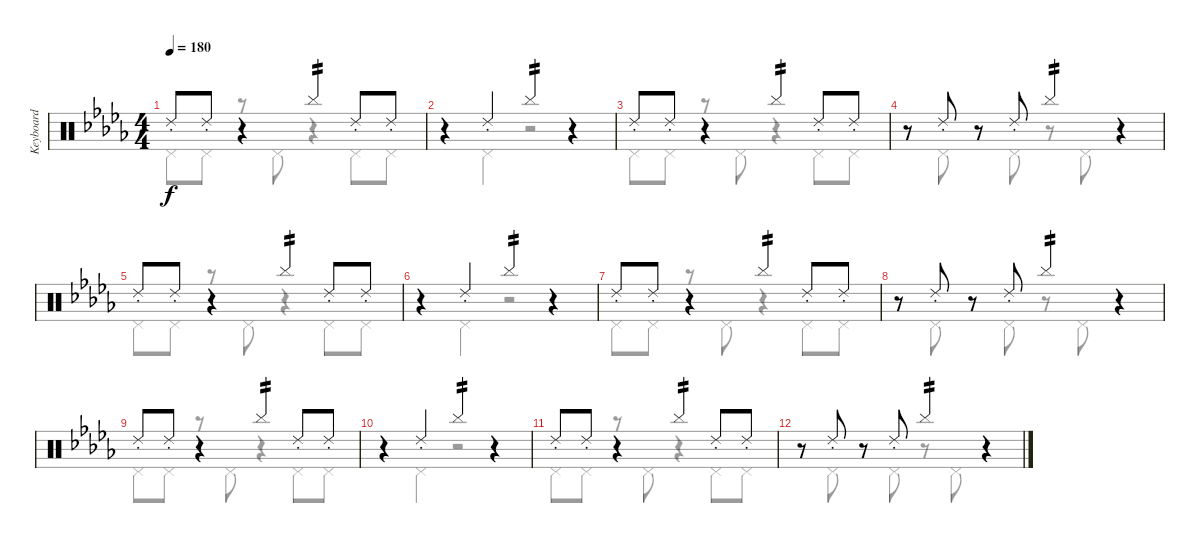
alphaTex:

\track ("Keyboard" "Keyboard") {instrument percussion}
\staff {score}
\articulation defaults
\voice
\ts (4 4)
\tempo 180
\clef neutral
\ks db "Ride (choke) 2".8{dy f} "Ride (choke) 2".8
r.4 "Cymbal (hit)".4{tp 2} "Ride (choke) 2".8 "Ride (choke) 2".8 |
r.4 "Ride (choke) 2".4 "Cymbal (hit)".4{tp 2} r.4 |
"Ride (choke) 2".8 "Ride (choke) 2".8 r.4 "Cymbal (hit)".4{tp 2} "Ride (choke) 2".8 "Ride (choke) 2".8 |
r.8 "Ride (choke) 2".8 r.8 "Ride (choke) 2".8 "Cymbal (hit)".4{tp 2} r.4 |
"Ride (choke) 2".8 "Ride (choke) 2".8 r.4 "Cymbal (hit)".4{tp 2} "Ride (choke) 2".8 "Ride (choke) 2".8 |
r.4 "Ride (choke) 2".4 "Cymbal (hit)".4{tp 2} r.4 |
"Ride (choke) 2".8 "Ride (choke) 2".8 r.4 "Cymbal (hit)".4{tp 2} "Ride (choke) 2".8 "Ride (choke) 2".8 |
r.8 "Ride (choke) 2".8 r.8 "Ride (choke) 2".8 "Cymbal (hit)".4{tp 2} r.4 |
"Ride (choke) 2".8 "Ride (choke) 2".8 r.4 "Cymbal (hit)".4{tp 2} "Ride (choke) 2".8 "Ride (choke) 2".8 |
r.4 "Ride (choke) 2".4 "Cymbal (hit)".4{tp 2} r.4 |
"Ride (choke) 2".8 "Ride (choke) 2".8 r.4 "Cymbal (hit)".4{tp 2} "Ride (choke) 2".8 "Ride (choke) 2".8 |
r.8 "Ride (choke) 2".8 r.8 "Ride (choke) 2".8 "Cymbal (hit)".4{tp 2} r.4
\voice
\clef neutral
\ottava regular
\simile none
\ks db "Pedal Hi-Hat (hit)".8{dy f} "Pedal Hi-Hat (hit)".8
r.8 "Pedal Hi-Hat (hit)".8 r.4 "Pedal Hi-Hat (hit)".8 "Pedal Hi-Hat (hit)".8 |
r.4 "Pedal Hi-Hat (hit)".4 r.2 |
"Pedal Hi-Hat (hit)".8 "Pedal Hi-Hat (hit)".8 r.8 "Pedal Hi-Hat (hit)".8 r.4 "Pedal Hi-Hat (hit)".8 "Pedal Hi-Hat (hit)".8 |
r.8 "Pedal Hi-Hat (hit)".8 r.8 "Pedal Hi-Hat (hit)".8 r.8 "Pedal Hi-Hat (hit)".8 r.4 |
"Pedal Hi-Hat (hit)".8 "Pedal Hi-Hat (hit)".8 r.8 "Pedal Hi-Hat (hit)".8 r.4 "Pedal Hi-Hat (hit)".8 "Pedal Hi-Hat (hit)".8 |
r.4 "Pedal Hi-Hat (hit)".4 r.2 |
"Pedal Hi-Hat (hit)".8 "Pedal Hi-Hat (hit)".8 r.8 "Pedal Hi-Hat (hit)".8 r.4 "Pedal Hi-Hat (hit)".8 "Pedal Hi-Hat (hit)".8 |
r.8 "Pedal Hi-Hat (hit)".8 r.8 "Pedal Hi-Hat (hit)".8 r.8 "Pedal Hi-Hat (hit)".8 r.4 |
"Pedal Hi-Hat (hit)".8 "Pedal Hi-Hat (hit)".8 r.8 "Pedal Hi-Hat (hit)".8 r.4 "Pedal Hi-Hat (hit)".8 "Pedal Hi-Hat (hit)".8 |
r.4 "Pedal Hi-Hat (hit)".4 r.2 |
"Pedal Hi-Hat (hit)".8 "Pedal Hi-Hat (hit)".8 r.8 "Pedal Hi-Hat (hit)".8 r.4 "Pedal Hi-Hat (hit)".8 "Pedal Hi-Hat (hit)".8 |
r.8 "Pedal Hi-Hat (hit)".8 r.8 "Pedal Hi-Hat (hit)".8 r.8 "Pedal Hi-Hat (hit)".8 r.4
